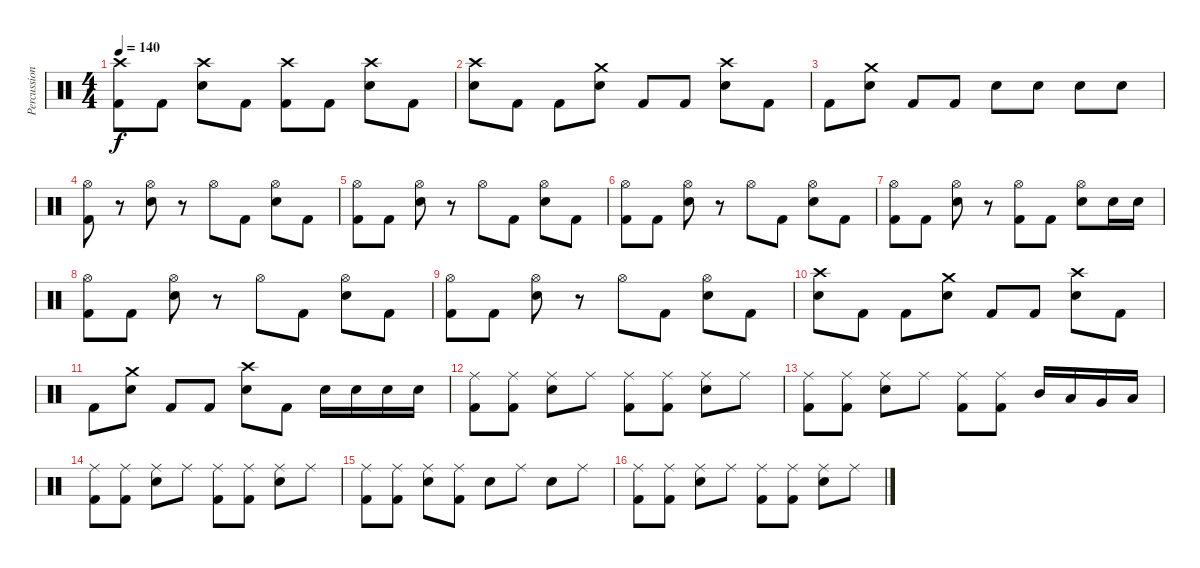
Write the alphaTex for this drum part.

\track ("Percussion" "Percussion") {instrument percussion}
\staff {score}
\articulation defaults
\ts (4 4)
\tempo 140
\clef neutral
\ks c
("Crash high (hit)" "Kick (hit) 2").8{dy f} "Kick (hit) 2".8 ("Crash high (hit)" "Electric Snare (hit)").8 "Kick (hit) 2".8 ("Crash high (hit)" "Kick (hit) 2").8 "Kick (hit) 2".8 ("Crash high (hit)" "Electric Snare (hit)").8 "Kick (hit) 2".8 |
("Crash high (hit)" "Electric Snare (hit)").8 "Kick (hit) 2".8 "Kick (hit) 2".8 ("Crash medium (hit)" "Electric Snare (hit)").8 "Kick (hit) 2".8 "Kick (hit) 2".8 ("Crash high (hit)" "Electric Snare (hit)").8 "Kick (hit) 2".8 |
"Kick (hit) 2".8 ("Crash medium (hit)" "Electric Snare (hit)").8 "Kick (hit) 2".8 "Kick (hit) 2".8 "Electric Snare (hit)".8 "Electric Snare (hit)".8 "Electric Snare (hit)".8 "Electric Snare (hit)".8 |
("Hi-Hat (open)" "Kick (hit) 2").8 r.8 ("Hi-Hat (open)" "Electric Snare (hit)").8 r.8 "Hi-Hat (open)".8 "Kick (hit) 2".8 ("Hi-Hat (open)" "Electric Snare (hit)").8 "Kick (hit) 2".8 |
("Hi-Hat (open)" "Kick (hit) 2").8 "Kick (hit) 2".8 ("Hi-Hat (open)" "Electric Snare (hit)").8 r.8 "Hi-Hat (open)".8 "Kick (hit) 2".8 ("Hi-Hat (open)" "Electric Snare (hit)").8 "Kick (hit) 2".8 |
("Hi-Hat (open)" "Kick (hit) 2").8 "Kick (hit) 2".8 ("Hi-Hat (open)" "Electric Snare (hit)").8 r.8 "Hi-Hat (open)".8 "Kick (hit) 2".8 ("Hi-Hat (open)" "Electric Snare (hit)").8 "Kick (hit) 2".8 |
("Hi-Hat (open)" "Kick (hit) 2").8 "Kick (hit) 2".8 ("Hi-Hat (open)" "Electric Snare (hit)").8 r.8 ("Hi-Hat (open)" "Kick (hit) 2").8 "Kick (hit) 2".8 ("Hi-Hat (open)" "Electric Snare (hit)").8 "Electric Snare (hit)".16 "Electric Snare (hit)".16 |
("Hi-Hat (open)" "Kick (hit) 2").8 "Kick (hit) 2".8 ("Hi-Hat (open)" "Electric Snare (hit)").8 r.8 "Hi-Hat (open)".8 "Kick (hit) 2".8 ("Hi-Hat (open)" "Electric Snare (hit)").8 "Kick (hit) 2".8 |
("Hi-Hat (open)" "Kick (hit) 2").8 "Kick (hit) 2".8 ("Hi-Hat (open)" "Electric Snare (hit)").8 r.8 "Hi-Hat (open)".8 "Kick (hit) 2".8 ("Hi-Hat (open)" "Electric Snare (hit)").8 "Kick (hit) 2".8 |
("Crash high (hit)" "Electric Snare (hit)").8 "Kick (hit) 2".8 "Kick (hit) 2".8 ("Crash medium (hit)" "Electric Snare (hit)").8 "Kick (hit) 2".8 "Kick (hit) 2".8 ("Crash high (hit)" "Electric Snare (hit)").8 "Kick (hit) 2".8 |
"Kick (hit) 2".8 ("Crash medium (hit)" "Electric Snare (hit)").8 "Kick (hit) 2".8 "Kick (hit) 2".8 ("Crash high (hit)" "Electric Snare (hit)").8 "Kick (hit) 2".8 "Electric Snare (hit)".16 "Electric Snare (hit)".16 "Electric Snare (hit)".16 "Electric Snare (hit)".16 |
("Ride (middle)" "Kick (hit) 2").8 ("Ride (middle)" "Kick (hit) 2").8 ("Ride (middle)" "Electric Snare (hit)").8 "Ride (middle)".8 ("Ride (middle)" "Kick (hit) 2").8 ("Ride (middle)" "Kick (hit) 2").8 ("Ride (middle)" "Electric Snare (hit)").8 "Ride (middle)".8 |
("Ride (middle)" "Kick (hit) 2").8 ("Ride (middle)" "Kick (hit) 2").8 ("Ride (middle)" "Electric Snare (hit)").8 "Ride (middle)".8 ("Ride (middle)" "Kick (hit) 2").8 ("Ride (middle)" "Kick (hit) 2").8 "Mid Tom (hit)".16 "Low Tom (hit)".16 "Very Low Tom (hit)".16 "Low Floor Tom (hit)".16 |
("Ride (middle)" "Kick (hit) 2").8 ("Ride (middle)" "Kick (hit) 2").8 ("Ride (middle)" "Electric Snare (hit)").8 "Ride (middle)".8 ("Ride (middle)" "Kick (hit) 2").8 ("Ride (middle)" "Kick (hit) 2").8 ("Ride (middle)" "Electric Snare (hit)").8 "Ride (middle)".8 |
("Ride (middle)" "Kick (hit) 2").8 ("Ride (middle)" "Kick (hit) 2").8 ("Ride (middle)" "Electric Snare (hit)").8 ("Ride (middle)" "Kick (hit) 2").8 "Electric Snare (hit)".8 "Ride (middle)".8 "Electric Snare (hit)".8 "Ride (middle)".8 |
("Ride (middle)" "Kick (hit) 2").8 ("Ride (middle)" "Kick (hit) 2").8 ("Ride (middle)" "Electric Snare (hit)").8 "Ride (middle)".8 ("Ride (middle)" "Kick (hit) 2").8 ("Ride (middle)" "Kick (hit) 2").8 ("Ride (middle)" "Electric Snare (hit)").8 "Ride (middle)".8
